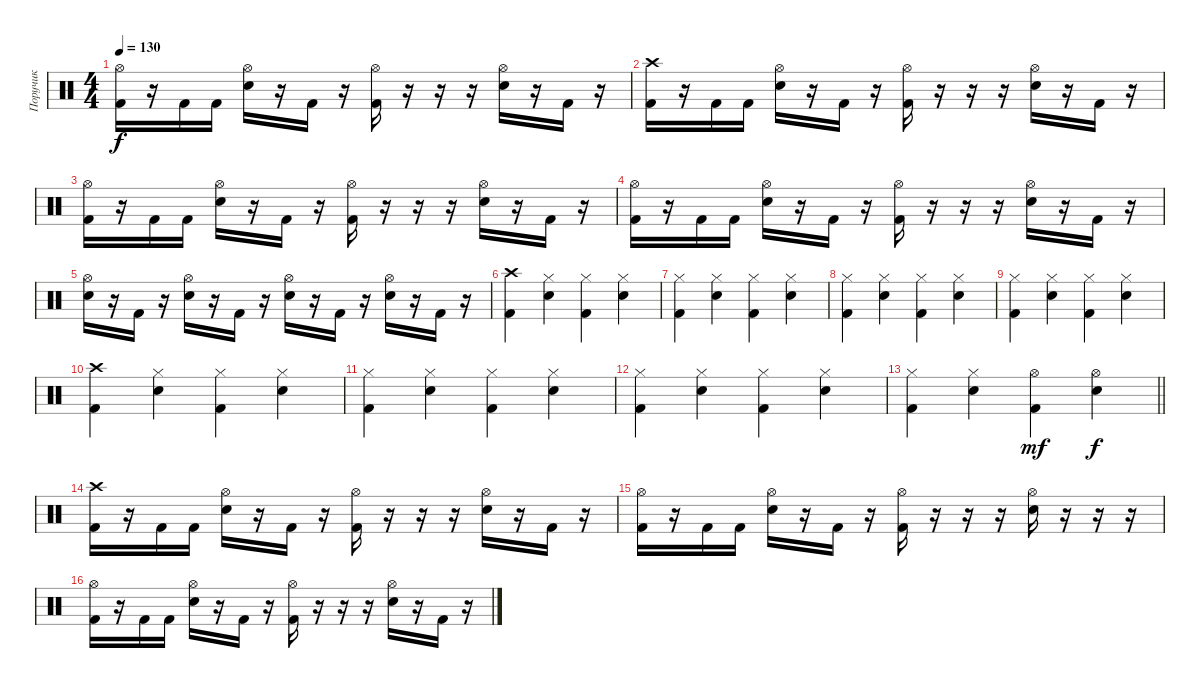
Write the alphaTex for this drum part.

\track ("Поручик" "Поручик") {instrument percussion}
\staff {score}
\articulation defaults
\ts (4 4)
\tempo 130
\clef neutral
\ks c
("Hi-Hat (open)" "Kick (hit) 2").16{dy f} r.16 "Kick (hit) 2".16 "Kick (hit) 2".16 ("Hi-Hat (open)" "Snare (hit) 2").16 r.16 "Kick (hit) 2".16 r.16 ("Hi-Hat (open)" "Kick (hit) 2").16 r.16 r.16 r.16 ("Hi-Hat (open)" "Snare (hit) 2").16 r.16 "Kick (hit) 2".16 r.16 |
("Crash high (hit)" "Kick (hit) 2").16 r.16 "Kick (hit) 2".16 "Kick (hit) 2".16 ("Hi-Hat (open)" "Snare (hit) 2").16 r.16 "Kick (hit) 2".16 r.16 ("Hi-Hat (open)" "Kick (hit) 2").16 r.16 r.16 r.16 ("Hi-Hat (open)" "Snare (hit) 2").16 r.16 "Kick (hit) 2".16 r.16 |
("Hi-Hat (open)" "Kick (hit) 2").16 r.16 "Kick (hit) 2".16 "Kick (hit) 2".16 ("Hi-Hat (open)" "Snare (hit) 2").16 r.16 "Kick (hit) 2".16 r.16 ("Hi-Hat (open)" "Kick (hit) 2").16 r.16 r.16 r.16 ("Hi-Hat (open)" "Snare (hit) 2").16 r.16 "Kick (hit) 2".16 r.16 |
("Hi-Hat (open)" "Kick (hit) 2").16 r.16 "Kick (hit) 2".16 "Kick (hit) 2".16 ("Hi-Hat (open)" "Snare (hit) 2").16 r.16 "Kick (hit) 2".16 r.16 ("Hi-Hat (open)" "Kick (hit) 2").16 r.16 r.16 r.16 ("Hi-Hat (open)" "Snare (hit) 2").16 r.16 "Kick (hit) 2".16 r.16 |
("Hi-Hat (open)" "Snare (hit) 2").16 r.16 "Kick (hit) 2".16 r.16 ("Hi-Hat (open)" "Snare (hit) 2").16 r.16 "Kick (hit) 2".16 r.16 ("Hi-Hat (open)" "Snare (hit) 2").16 r.16 "Kick (hit) 2".16 r.16 ("Hi-Hat (open)" "Snare (hit) 2").16 r.16 "Kick (hit) 2".16 r.16 |
("Crash high (hit)" "Kick (hit) 2").4 ("Hi-Hat (closed)" "Snare (hit) 2").4 ("Hi-Hat (closed)" "Kick (hit) 2").4 ("Hi-Hat (closed)" "Snare (hit) 2").4 |
("Hi-Hat (closed)" "Kick (hit) 2").4 ("Hi-Hat (closed)" "Snare (hit) 2").4 ("Hi-Hat (closed)" "Kick (hit) 2").4 ("Hi-Hat (closed)" "Snare (hit) 2").4 |
("Hi-Hat (closed)" "Kick (hit) 2").4 ("Hi-Hat (closed)" "Snare (hit) 2").4 ("Hi-Hat (closed)" "Kick (hit) 2").4 ("Hi-Hat (closed)" "Snare (hit) 2").4 |
("Hi-Hat (closed)" "Kick (hit) 2").4 ("Hi-Hat (closed)" "Snare (hit) 2").4 ("Hi-Hat (closed)" "Kick (hit) 2").4 ("Hi-Hat (closed)" "Snare (hit) 2").4 |
("Crash high (hit)" "Kick (hit) 2").4 ("Hi-Hat (closed)" "Snare (hit) 2").4 ("Hi-Hat (closed)" "Kick (hit) 2").4 ("Hi-Hat (closed)" "Snare (hit) 2").4 |
("Hi-Hat (closed)" "Kick (hit) 2").4 ("Hi-Hat (closed)" "Snare (hit) 2").4 ("Hi-Hat (closed)" "Kick (hit) 2").4 ("Hi-Hat (closed)" "Snare (hit) 2").4 |
("Hi-Hat (closed)" "Kick (hit) 2").4 ("Hi-Hat (closed)" "Snare (hit) 2").4 ("Hi-Hat (closed)" "Kick (hit) 2").4 ("Hi-Hat (closed)" "Snare (hit) 2").4 |
\barLineRight lightlight
("Hi-Hat (closed)" "Kick (hit) 2").4 ("Hi-Hat (closed)" "Snare (hit) 2").4 ("Hi-Hat (open)" "Kick (hit) 2").4{dy mf} ("Hi-Hat (open)" "Snare (hit) 2").4{dy f} |
("Crash high (hit)" "Kick (hit) 2").16 r.16 "Kick (hit) 2".16 "Kick (hit) 2".16 ("Hi-Hat (open)" "Snare (hit) 2").16 r.16 "Kick (hit) 2".16 r.16 ("Hi-Hat (open)" "Kick (hit) 2").16 r.16 r.16 r.16 ("Hi-Hat (open)" "Snare (hit) 2").16 r.16 "Kick (hit) 2".16 r.16 |
("Hi-Hat (open)" "Kick (hit) 2").16 r.16 "Kick (hit) 2".16 "Kick (hit) 2".16 ("Hi-Hat (open)" "Snare (hit) 2").16 r.16 "Kick (hit) 2".16 r.16 ("Hi-Hat (open)" "Kick (hit) 2").16 r.16 r.16 r.16 ("Hi-Hat (open)" "Snare (hit) 2").16 r.16 r.16 r.16 |
("Hi-Hat (open)" "Kick (hit) 2").16 r.16 "Kick (hit) 2".16 "Kick (hit) 2".16 ("Hi-Hat (open)" "Snare (hit) 2").16 r.16 "Kick (hit) 2".16 r.16 ("Hi-Hat (open)" "Kick (hit) 2").16 r.16 r.16 r.16 ("Hi-Hat (open)" "Snare (hit) 2").16 r.16 "Kick (hit) 2".16 r.16
